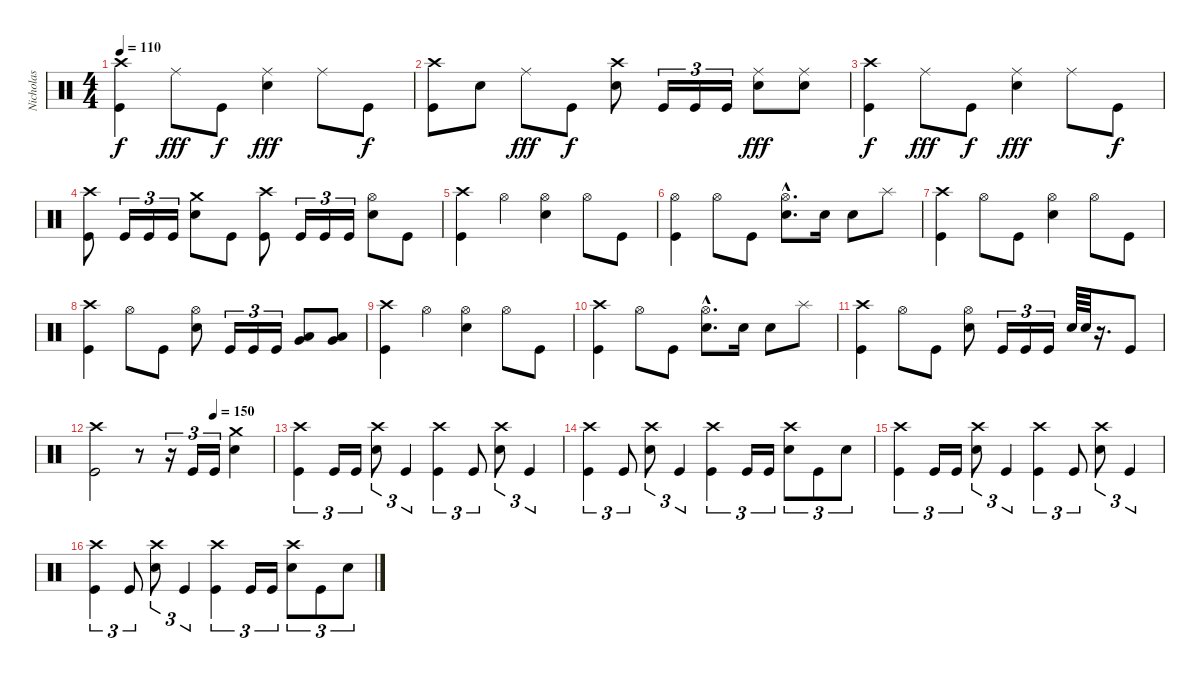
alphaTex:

\track ("Nicholas" "Nicholas") {instrument percussion}
\staff {score}
\articulation defaults
\ts (4 4)
\tempo 110
\clef neutral
\ks c
("Crash high (hit)" "Kick (hit)").4{dy f} "Ride (middle)".8{dy fff} "Kick (hit)".8{dy f} ("Ride (middle)" "Electric Snare (hit)").4{dy fff} "Ride (middle)".8 "Kick (hit)".8{dy f} |
("Crash high (hit)" "Kick (hit)").8 "Electric Snare (hit)".8 "Ride (middle)".8{dy fff} "Kick (hit)".8{dy f} ("Crash high (hit)" "Electric Snare (hit)").8 "Kick (hit)".16{tu (3 2)} "Kick (hit)".16{tu (3 2)} "Kick (hit)".16{tu (3 2)} ("Ride (middle)" "Electric Snare (hit)").8{dy fff} ("Ride (middle)" "Electric Snare (hit)").8 |
("Crash high (hit)" "Kick (hit)").4{dy f} "Ride (middle)".8{dy fff} "Kick (hit)".8{dy f} ("Ride (middle)" "Electric Snare (hit)").4{dy fff} "Ride (middle)".8 "Kick (hit)".8{dy f} |
("Crash high (hit)" "Kick (hit)").8 "Kick (hit)".16{tu (3 2)} "Kick (hit)".16{tu (3 2)} "Kick (hit)".16{tu (3 2)} ("Crash medium (hit)" "Electric Snare (hit)").8 "Kick (hit)".8 ("Crash high (hit)" "Kick (hit)").8 "Kick (hit)".16{tu (3 2)} "Kick (hit)".16{tu (3 2)} "Kick (hit)".16{tu (3 2)} ("Hi-Hat (open)" "Electric Snare (hit)").8 "Kick (hit)".8 |
("Crash high (hit)" "Kick (hit)").4 "Hi-Hat (open)".4 ("Hi-Hat (open)" "Electric Snare (hit)").4 "Hi-Hat (open)".8 "Kick (hit)".8 |
("Hi-Hat (open)" "Kick (hit)").4 "Hi-Hat (open)".8 "Kick (hit)".8 ("Hi-Hat (open)"{hac} "Electric Snare (hit)"{hac}).8{d} "Electric Snare (hit)".16 "Electric Snare (hit)".8 "Splash (hit)".8 |
("Crash high (hit)" "Kick (hit)").4 "Hi-Hat (open)".8 "Kick (hit)".8 ("Hi-Hat (open)" "Electric Snare (hit)").4 "Hi-Hat (open)".8 "Kick (hit)".8 |
("Crash high (hit)" "Kick (hit)").4 "Hi-Hat (open)".8 "Kick (hit)".8 ("Hi-Hat (open)" "Electric Snare (hit)").8 "Kick (hit)".16{tu (3 2)} "Kick (hit)".16{tu (3 2)} "Kick (hit)".16{tu (3 2)} ("Low Tom (hit)" "Very Low Tom (hit)").8{bd 60} ("Low Tom (hit)" "Very Low Tom (hit)").8{bd 60} |
("Crash high (hit)" "Kick (hit)").4 "Hi-Hat (open)".4 ("Hi-Hat (open)" "Electric Snare (hit)").4 "Hi-Hat (open)".8 "Kick (hit)".8 |
("Crash high (hit)" "Kick (hit)").4 "Hi-Hat (open)".8 "Kick (hit)".8 ("Hi-Hat (open)"{hac} "Electric Snare (hit)"{hac}).8{d} "Electric Snare (hit)".16 "Electric Snare (hit)".8 "Splash (hit)".8 |
("Crash high (hit)" "Kick (hit)").4 "Hi-Hat (open)".8 "Kick (hit)".8 ("Hi-Hat (open)" "Electric Snare (hit)").8 "Kick (hit)".16{tu (3 2)} "Kick (hit)".16{tu (3 2)} "Kick (hit)".16{tu (3 2)} "Electric Snare (hit)".64 "Electric Snare (hit)".64 r.16{d} "Kick (hit)".8 |
\tempo (150 0.6666666666666666)
("Crash high (hit)" "Kick (hit)").2 r.8 r.16{tu (3 2)} "Kick (hit)".16{tu (3 2)} "Kick (hit)".16{tu (3 2)} ("Crash medium (hit)" "Electric Snare (hit)").4 |
("Crash high (hit)" "Kick (hit)").4{tu (3 2)} "Kick (hit)".16{tu (3 2)} "Kick (hit)".16{tu (3 2)} ("Crash high (hit)" "Electric Snare (hit)").8{tu (3 2)} "Kick (hit)".4{tu (3 2)} ("Crash high (hit)" "Kick (hit)").4{tu (3 2)} "Kick (hit)".8{tu (3 2)} ("Crash high (hit)" "Electric Snare (hit)").8{tu (3 2)} "Kick (hit)".4{tu (3 2)} |
("Crash high (hit)" "Kick (hit)").4{tu (3 2)} "Kick (hit)".8{tu (3 2)} ("Crash high (hit)" "Electric Snare (hit)").8{tu (3 2)} "Kick (hit)".4{tu (3 2)} ("Crash high (hit)" "Kick (hit)").4{tu (3 2)} "Kick (hit)".16{tu (3 2)} "Kick (hit)".16{tu (3 2)} ("Crash high (hit)" "Electric Snare (hit)").8{tu (3 2)} "Kick (hit)".8{tu (3 2)} "Electric Snare (hit)".8{tu (3 2)} |
("Crash high (hit)" "Kick (hit)").4{tu (3 2)} "Kick (hit)".16{tu (3 2)} "Kick (hit)".16{tu (3 2)} ("Crash high (hit)" "Electric Snare (hit)").8{tu (3 2)} "Kick (hit)".4{tu (3 2)} ("Crash high (hit)" "Kick (hit)").4{tu (3 2)} "Kick (hit)".8{tu (3 2)} ("Crash high (hit)" "Electric Snare (hit)").8{tu (3 2)} "Kick (hit)".4{tu (3 2)} |
("Crash high (hit)" "Kick (hit)").4{tu (3 2)} "Kick (hit)".8{tu (3 2)} ("Crash high (hit)" "Electric Snare (hit)").8{tu (3 2)} "Kick (hit)".4{tu (3 2)} ("Crash high (hit)" "Kick (hit)").4{tu (3 2)} "Kick (hit)".16{tu (3 2)} "Kick (hit)".16{tu (3 2)} ("Crash high (hit)" "Electric Snare (hit)").8{tu (3 2)} "Kick (hit)".8{tu (3 2)} "Electric Snare (hit)".8{tu (3 2)}
